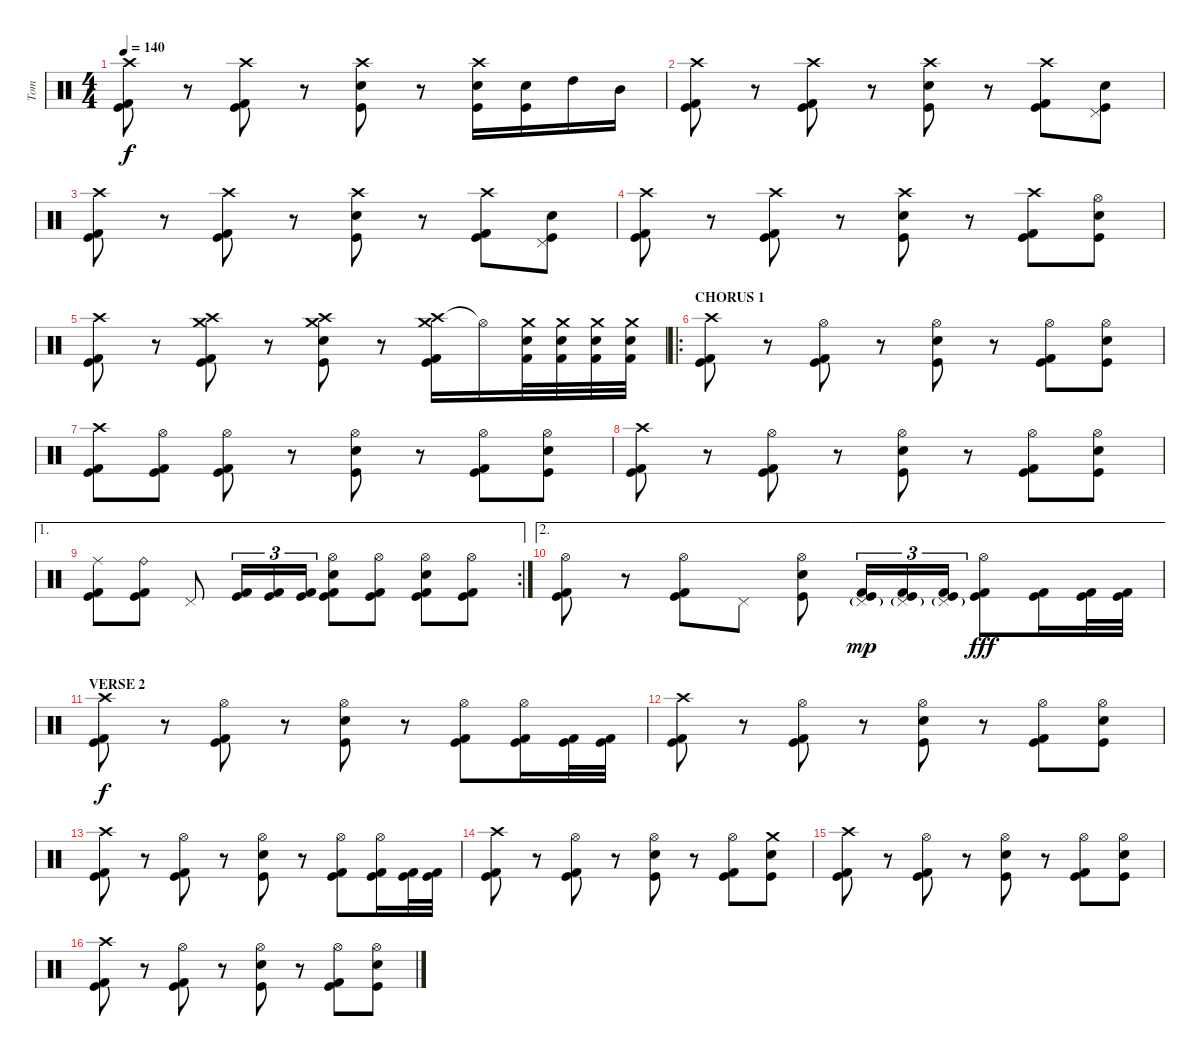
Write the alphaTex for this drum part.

\track ("Tom" "Tom") {instrument percussion}
\staff {score}
\articulation defaults
\ts (4 4)
\tempo 140
\clef neutral
\ks c
("Crash high (hit)" "Kick (hit)" "Kick (hit) 2").8{dy f} r.8 ("Crash high (hit)" "Kick (hit)" "Kick (hit) 2").8 r.8 ("Crash high (hit)" "Kick (hit)" "Electric Snare (hit)").8 r.8 ("Crash high (hit)" "Kick (hit)" "Electric Snare (hit)").16 ("Kick (hit)" "Electric Snare (hit)").16 "High Tom (hit)".16 "Mid Tom (hit)".16 |
("Crash high (hit)" "Kick (hit)" "Kick (hit) 2").8 r.8 ("Crash high (hit)" "Kick (hit)" "Kick (hit) 2").8 r.8 ("Crash high (hit)" "Kick (hit)" "Electric Snare (hit)").8 r.8 ("Crash high (hit)" "Kick (hit)" "Kick (hit) 2").8 ("Pedal Hi-Hat (hit)" "Kick (hit)" "Electric Snare (hit)").8 |
("Crash high (hit)" "Kick (hit)" "Kick (hit) 2").8 r.8 ("Crash high (hit)" "Kick (hit)" "Kick (hit) 2").8 r.8 ("Crash high (hit)" "Kick (hit)" "Electric Snare (hit)").8 r.8 ("Crash high (hit)" "Kick (hit)" "Kick (hit) 2").8 ("Pedal Hi-Hat (hit)" "Kick (hit)" "Electric Snare (hit)").8 |
("Crash high (hit)" "Kick (hit)" "Kick (hit) 2").8 r.8 ("Crash high (hit)" "Kick (hit)" "Kick (hit) 2").8 r.8 ("Crash high (hit)" "Kick (hit)" "Electric Snare (hit)").8 r.8 ("Crash high (hit)" "Kick (hit)" "Kick (hit) 2").8 ("Hi-Hat (open)" "Kick (hit)" "Electric Snare (hit)").8 |
("Crash high (hit)" "Kick (hit)" "Kick (hit) 2").8 r.8 ("Crash high (hit)" "Kick (hit)" "Crash medium (hit)" "Kick (hit) 2").8 r.8 ("Crash high (hit)" "Kick (hit)" "Crash medium (hit)" "Electric Snare (hit)").8 r.8 ("Crash high (hit)" "Kick (hit)" "Crash medium (hit)" "Kick (hit) 2").16 "Hi-Hat (open)"{t}.16 ("Kick (hit) 2" "Crash medium (hit)" "Electric Snare (hit)").32 ("Kick (hit) 2" "Crash medium (hit)" "Electric Snare (hit)").32 ("Kick (hit) 2" "Crash medium (hit)" "Electric Snare (hit)").32 ("Kick (hit) 2" "Crash medium (hit)" "Electric Snare (hit)").32 |
\ro
\section ("" "CHORUS 1")
("Crash high (hit)" "Kick (hit)" "Kick (hit) 2").8 r.8 ("Hi-Hat (open)" "Kick (hit)" "Kick (hit) 2").8 r.8 ("Hi-Hat (open)" "Kick (hit)" "Electric Snare (hit)").8 r.8 ("Hi-Hat (open)" "Kick (hit)" "Kick (hit) 2").8 ("Hi-Hat (open)" "Kick (hit)" "Electric Snare (hit)").8 |
("Crash high (hit)" "Kick (hit)" "Kick (hit) 2").8 ("Hi-Hat (open)" "Kick (hit)" "Kick (hit) 2").8 ("Hi-Hat (open)" "Kick (hit)" "Kick (hit) 2").8 r.8 ("Hi-Hat (open)" "Kick (hit)" "Electric Snare (hit)").8 r.8 ("Hi-Hat (open)" "Kick (hit)" "Kick (hit) 2").8 ("Hi-Hat (open)" "Kick (hit)" "Electric Snare (hit)").8 |
("Crash high (hit)" "Kick (hit)" "Kick (hit) 2").8 r.8 ("Hi-Hat (open)" "Kick (hit)" "Kick (hit) 2").8 r.8 ("Hi-Hat (open)" "Kick (hit)" "Electric Snare (hit)").8 r.8 ("Hi-Hat (open)" "Kick (hit)" "Kick (hit) 2").8 ("Hi-Hat (open)" "Kick (hit)" "Electric Snare (hit)").8 |
\ae 1
\rc 2
("Ride (middle)" "Kick (hit)" "Kick (hit) 2").8 ("Ride (bell)" "Kick (hit)" "Kick (hit) 2").8 "Pedal Hi-Hat (hit)".8 ("Kick (hit)" "Kick (hit) 2").16{tu (3 2)} ("Kick (hit)" "Kick (hit) 2").16{tu (3 2)} ("Kick (hit)" "Kick (hit) 2").16{tu (3 2)} ("Hi-Hat (open)" "Kick (hit) 2" "Kick (hit)" "Electric Snare (hit)").8 ("Hi-Hat (open)" "Kick (hit)" "Kick (hit) 2").8 ("Hi-Hat (open)" "Kick (hit) 2" "Kick (hit)" "Electric Snare (hit)").8 ("Hi-Hat (open)" "Kick (hit)" "Kick (hit) 2").8 |
\ae 2
("Hi-Hat (open)" "Kick (hit)" "Kick (hit) 2").8 r.8 ("Hi-Hat (open)" "Kick (hit)" "Kick (hit) 2").8 "Pedal Hi-Hat (hit)".8 ("Hi-Hat (open)" "Kick (hit)" "Electric Snare (hit)").8 ("Kick (hit)" "Kick (hit) 2" "Pedal Hi-Hat (hit)"{g}).16{tu (3 2) dy mp} ("Kick (hit)" "Kick (hit) 2" "Pedal Hi-Hat (hit)"{g}).16{tu (3 2)} ("Kick (hit)" "Kick (hit) 2" "Pedal Hi-Hat (hit)"{g}).16{tu (3 2)} ("Hi-Hat (open)" "Kick (hit)" "Kick (hit) 2").8{dy fff} ("Kick (hit)" "Kick (hit) 2").16 ("Kick (hit)" "Kick (hit) 2").32 ("Kick (hit)" "Kick (hit) 2").32 |
\section ("" "VERSE 2")
("Crash high (hit)" "Kick (hit)" "Kick (hit) 2").8{dy f} r.8 ("Hi-Hat (open)" "Kick (hit)" "Kick (hit) 2").8 r.8 ("Hi-Hat (open)" "Kick (hit)" "Electric Snare (hit)").8 r.8 ("Hi-Hat (open)" "Kick (hit)" "Kick (hit) 2").8 ("Hi-Hat (open)" "Kick (hit)" "Kick (hit) 2").16 ("Kick (hit)" "Kick (hit) 2").32 ("Kick (hit)" "Kick (hit) 2").32 |
("Crash high (hit)" "Kick (hit)" "Kick (hit) 2").8 r.8 ("Hi-Hat (open)" "Kick (hit)" "Kick (hit) 2").8 r.8 ("Hi-Hat (open)" "Kick (hit)" "Electric Snare (hit)").8 r.8 ("Hi-Hat (open)" "Kick (hit)" "Kick (hit) 2").8 ("Hi-Hat (open)" "Kick (hit)" "Electric Snare (hit)").8 |
("Crash high (hit)" "Kick (hit)" "Kick (hit) 2").8 r.8 ("Hi-Hat (open)" "Kick (hit)" "Kick (hit) 2").8 r.8 ("Hi-Hat (open)" "Kick (hit)" "Electric Snare (hit)").8 r.8 ("Hi-Hat (open)" "Kick (hit)" "Kick (hit) 2").8 ("Hi-Hat (open)" "Kick (hit)" "Kick (hit) 2").16 ("Kick (hit)" "Kick (hit) 2").32 ("Kick (hit)" "Kick (hit) 2").32 |
("Crash high (hit)" "Kick (hit)" "Kick (hit) 2").8 r.8 ("Hi-Hat (open)" "Kick (hit)" "Kick (hit) 2").8 r.8 ("Hi-Hat (open)" "Kick (hit)" "Electric Snare (hit)").8 r.8 ("Hi-Hat (open)" "Kick (hit)" "Kick (hit) 2").8 ("Crash medium (hit)" "Kick (hit)" "Electric Snare (hit)").8 |
("Crash high (hit)" "Kick (hit)" "Kick (hit) 2").8 r.8 ("Hi-Hat (open)" "Kick (hit)" "Kick (hit) 2").8 r.8 ("Hi-Hat (open)" "Kick (hit)" "Electric Snare (hit)").8 r.8 ("Hi-Hat (open)" "Kick (hit)" "Kick (hit) 2").8 ("Hi-Hat (open)" "Kick (hit)" "Electric Snare (hit)").8 |
("Crash high (hit)" "Kick (hit)" "Kick (hit) 2").8 r.8 ("Hi-Hat (open)" "Kick (hit)" "Kick (hit) 2").8 r.8 ("Hi-Hat (open)" "Kick (hit)" "Electric Snare (hit)").8 r.8 ("Hi-Hat (open)" "Kick (hit)" "Kick (hit) 2").8 ("Hi-Hat (open)" "Kick (hit)" "Electric Snare (hit)").8
